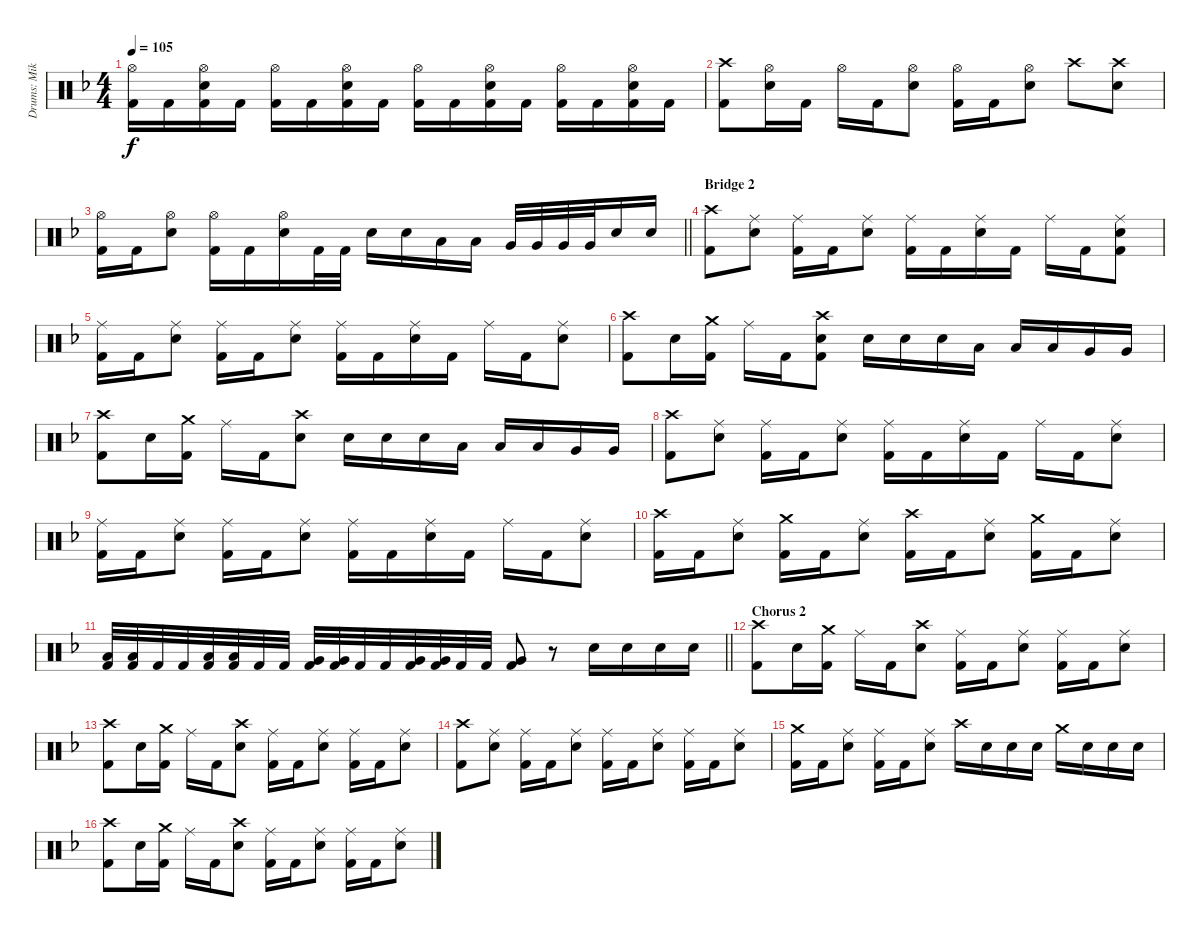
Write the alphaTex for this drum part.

\track ("Drums: Mikko Korsbäck" "Drums: Mik") {instrument percussion}
\staff {score}
\articulation defaults
\ts (4 4)
\tempo 105
\clef neutral
\ks dminor
("Hi-Hat (open)" "Kick (hit) 2").16{dy f} "Kick (hit) 2".16 ("Hi-Hat (open)" "Electric Snare (hit)" "Kick (hit) 2").16 "Kick (hit) 2".16 ("Hi-Hat (open)" "Kick (hit) 2").16 "Kick (hit) 2".16 ("Hi-Hat (open)" "Electric Snare (hit)" "Kick (hit) 2").16 "Kick (hit) 2".16 ("Hi-Hat (open)" "Kick (hit) 2").16 "Kick (hit) 2".16 ("Hi-Hat (open)" "Electric Snare (hit)" "Kick (hit) 2").16 "Kick (hit) 2".16 ("Hi-Hat (open)" "Kick (hit) 2").16 "Kick (hit) 2".16 ("Hi-Hat (open)" "Electric Snare (hit)" "Kick (hit) 2").16 "Kick (hit) 2".16 |
("Crash high (hit)" "Kick (hit) 2").8 ("Hi-Hat (open)" "Electric Snare (hit)").16 "Kick (hit) 2".16 "Hi-Hat (open)".16 "Kick (hit) 2".16 ("Hi-Hat (open)" "Electric Snare (hit)").8 ("Hi-Hat (open)" "Kick (hit) 2").16 "Kick (hit) 2".16 ("Hi-Hat (open)" "Electric Snare (hit)").8 "Crash high (hit)".8 ("Crash high (hit)" "Electric Snare (hit)").8 |
\barLineRight lightlight
("Hi-Hat (open)" "Kick (hit) 2").16 "Kick (hit) 2".16 ("Hi-Hat (open)" "Electric Snare (hit)").8 ("Hi-Hat (open)" "Kick (hit) 2").16 "Kick (hit) 2".16 ("Hi-Hat (open)" "Electric Snare (hit)").16 "Kick (hit) 2".32 "Kick (hit) 2".32 "Electric Snare (hit)".16 "Electric Snare (hit)".16 "Low Floor Tom (hit)".16 "Low Floor Tom (hit)".16 "Very Low Tom (hit)".32 "Very Low Tom (hit)".32 "Very Low Tom (hit)".32 "Very Low Tom (hit)".32 "Electric Snare (hit)".16 "Electric Snare (hit)".16 |
\section ("" "Bridge 2")
("Crash high (hit)" "Kick (hit) 2").8 ("Ride (middle)" "Electric Snare (hit)").8 ("Ride (middle)" "Kick (hit) 2").16 "Kick (hit) 2".16 ("Ride (middle)" "Electric Snare (hit)").8 ("Ride (middle)" "Kick (hit) 2").16 "Kick (hit) 2".16 ("Ride (middle)" "Electric Snare (hit)").16 "Kick (hit) 2".16 "Ride (middle)".16 "Kick (hit) 2".16 ("Ride (middle)" "Electric Snare (hit)" "Kick (hit) 2").8 |
("Ride (middle)" "Kick (hit) 2").16 "Kick (hit) 2".16 ("Ride (middle)" "Electric Snare (hit)").8 ("Ride (middle)" "Kick (hit) 2").16 "Kick (hit) 2".16 ("Ride (middle)" "Electric Snare (hit)").8 ("Ride (middle)" "Kick (hit) 2").16 "Kick (hit) 2".16 ("Ride (middle)" "Electric Snare (hit)").16 "Kick (hit) 2".16 "Ride (middle)".16 "Kick (hit) 2".16 ("Ride (middle)" "Electric Snare (hit)").8 |
("Crash high (hit)" "Kick (hit) 2").8 "Electric Snare (hit)".16 ("Crash medium (hit)" "Kick (hit) 2").16 "Ride (middle)".16 "Kick (hit) 2".16 ("Crash high (hit)" "Electric Snare (hit)" "Kick (hit) 2").8 "Electric Snare (hit)".16 "Electric Snare (hit)".16 "Electric Snare (hit)".16 "Low Tom (hit)".16 "Low Tom (hit)".16 "Low Tom (hit)".16 "Very Low Tom (hit)".16 "Very Low Tom (hit)".16 |
("Crash high (hit)" "Kick (hit) 2").8 "Electric Snare (hit)".16 ("Crash medium (hit)" "Kick (hit) 2").16 "Ride (middle)".16 "Kick (hit) 2".16 ("Crash high (hit)" "Electric Snare (hit)").8 "Electric Snare (hit)".16 "Electric Snare (hit)".16 "Electric Snare (hit)".16 "Low Tom (hit)".16 "Low Tom (hit)".16 "Low Tom (hit)".16 "Very Low Tom (hit)".16 "Very Low Tom (hit)".16 |
("Crash high (hit)" "Kick (hit) 2").8 ("Ride (middle)" "Electric Snare (hit)").8 ("Ride (middle)" "Kick (hit) 2").16 "Kick (hit) 2".16 ("Ride (middle)" "Electric Snare (hit)").8 ("Ride (middle)" "Kick (hit) 2").16 "Kick (hit) 2".16 ("Ride (middle)" "Electric Snare (hit)").16 "Kick (hit) 2".16 "Ride (middle)".16 "Kick (hit) 2".16 ("Ride (middle)" "Electric Snare (hit)").8 |
("Ride (middle)" "Kick (hit) 2").16 "Kick (hit) 2".16 ("Ride (middle)" "Electric Snare (hit)").8 ("Ride (middle)" "Kick (hit) 2").16 "Kick (hit) 2".16 ("Ride (middle)" "Electric Snare (hit)").8 ("Ride (middle)" "Kick (hit) 2").16 "Kick (hit) 2".16 ("Ride (middle)" "Electric Snare (hit)").16 "Kick (hit) 2".16 "Ride (middle)".16 "Kick (hit) 2".16 ("Ride (middle)" "Electric Snare (hit)").8 |
("Crash high (hit)" "Kick (hit) 2").16 "Kick (hit) 2".16 ("Ride (middle)" "Electric Snare (hit)").8 ("Crash medium (hit)" "Kick (hit) 2").16 "Kick (hit) 2".16 ("Ride (middle)" "Electric Snare (hit)").8 ("Crash high (hit)" "Kick (hit) 2").16 "Kick (hit) 2".16 ("Ride (middle)" "Electric Snare (hit)").8 ("Crash medium (hit)" "Kick (hit) 2").16 "Kick (hit) 2".16 ("Ride (middle)" "Electric Snare (hit)").8 |
\barLineRight lightlight
("Low Tom (hit)" "Kick (hit) 2").32 ("Low Tom (hit)" "Kick (hit) 2").32 "Kick (hit) 2".32 "Kick (hit) 2".32 ("Low Tom (hit)" "Kick (hit) 2").32 ("Low Tom (hit)" "Kick (hit) 2").32 "Kick (hit) 2".32 "Kick (hit) 2".32 ("Very Low Tom (hit)" "Kick (hit) 2").32 ("Very Low Tom (hit)" "Kick (hit) 2").32 "Kick (hit) 2".32 "Kick (hit) 2".32 ("Very Low Tom (hit)" "Kick (hit) 2").32 ("Very Low Tom (hit)" "Kick (hit) 2").32 "Kick (hit) 2".32 "Kick (hit) 2".32 ("Very Low Tom (hit)" "Kick (hit) 2").8 r.8 "Electric Snare (hit)".16 "Electric Snare (hit)".16 "Electric Snare (hit)".16 "Electric Snare (hit)".16 |
\section ("" "Chorus 2")
("Crash high (hit)" "Kick (hit) 2").8 "Electric Snare (hit)".16 ("Crash medium (hit)" "Kick (hit) 2").16 "Ride (middle)".16 "Kick (hit) 2".16 ("Crash high (hit)" "Electric Snare (hit)").8 ("Ride (middle)" "Kick (hit) 2").16 "Kick (hit) 2".16 ("Ride (middle)" "Electric Snare (hit)").8 ("Ride (middle)" "Kick (hit) 2").16 "Kick (hit) 2".16 ("Ride (middle)" "Electric Snare (hit)").8 |
("Crash high (hit)" "Kick (hit) 2").8 "Electric Snare (hit)".16 ("Crash medium (hit)" "Kick (hit) 2").16 "Ride (middle)".16 "Kick (hit) 2".16 ("Crash high (hit)" "Electric Snare (hit)").8 ("Ride (middle)" "Kick (hit) 2").16 "Kick (hit) 2".16 ("Ride (middle)" "Electric Snare (hit)").8 ("Ride (middle)" "Kick (hit) 2").16 "Kick (hit) 2".16 ("Ride (middle)" "Electric Snare (hit)").8 |
("Crash high (hit)" "Kick (hit) 2").8 ("Ride (middle)" "Electric Snare (hit)").8 ("Ride (middle)" "Kick (hit) 2").16 "Kick (hit) 2".16 ("Ride (middle)" "Electric Snare (hit)").8 ("Ride (middle)" "Kick (hit) 2").16 "Kick (hit) 2".16 ("Ride (middle)" "Electric Snare (hit)").8 ("Ride (middle)" "Kick (hit) 2").16 "Kick (hit) 2".16 ("Ride (middle)" "Electric Snare (hit)").8 |
("Crash medium (hit)" "Kick (hit) 2").16 "Kick (hit) 2".16 ("Ride (middle)" "Electric Snare (hit)").8 ("Ride (middle)" "Kick (hit) 2").16 "Kick (hit) 2".16 ("Ride (middle)" "Electric Snare (hit)").8 "Crash high (hit)".16 "Electric Snare (hit)".16 "Electric Snare (hit)".16 "Electric Snare (hit)".16 "Crash medium (hit)".16 "Electric Snare (hit)".16 "Electric Snare (hit)".16 "Electric Snare (hit)".16 |
("Crash high (hit)" "Kick (hit) 2").8 "Electric Snare (hit)".16 ("Crash medium (hit)" "Kick (hit) 2").16 "Ride (middle)".16 "Kick (hit) 2".16 ("Crash high (hit)" "Electric Snare (hit)").8 ("Ride (middle)" "Kick (hit) 2").16 "Kick (hit) 2".16 ("Ride (middle)" "Electric Snare (hit)").8 ("Ride (middle)" "Kick (hit) 2").16 "Kick (hit) 2".16 ("Ride (middle)" "Electric Snare (hit)").8
